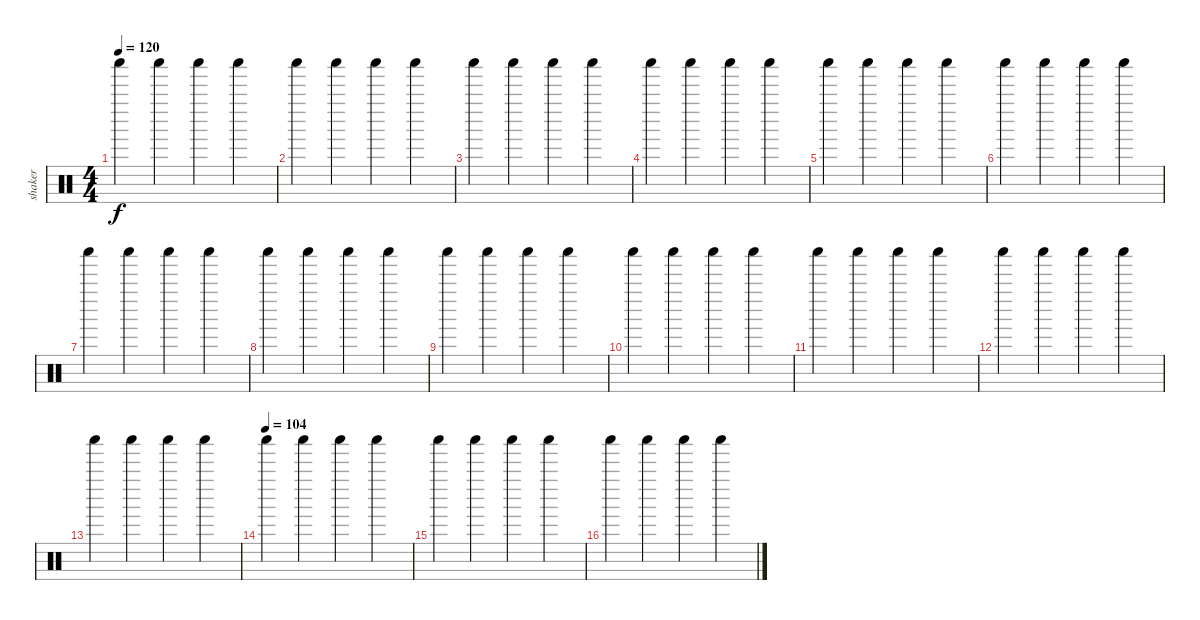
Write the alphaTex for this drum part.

\track ("shaker" "shaker") {instrument percussion}
\staff {score}
\articulation defaults
\ts (4 4)
\tempo 120
\clef neutral
\ks c "Shaker (hit)".4{dy f} "Shaker (hit)".4 "Shaker (hit)".4 "Shaker (hit)".4
|
"Shaker (hit)".4 "Shaker (hit)".4 "Shaker (hit)".4 "Shaker (hit)".4 |
"Shaker (hit)".4 "Shaker (hit)".4 "Shaker (hit)".4 "Shaker (hit)".4 |
"Shaker (hit)".4 "Shaker (hit)".4 "Shaker (hit)".4 "Shaker (hit)".4 |
"Shaker (hit)".4 "Shaker (hit)".4 "Shaker (hit)".4 "Shaker (hit)".4 |
"Shaker (hit)".4 "Shaker (hit)".4 "Shaker (hit)".4 "Shaker (hit)".4 |
"Shaker (hit)".4 "Shaker (hit)".4 "Shaker (hit)".4 "Shaker (hit)".4 |
"Shaker (hit)".4 "Shaker (hit)".4 "Shaker (hit)".4 "Shaker (hit)".4 |
"Shaker (hit)".4 "Shaker (hit)".4 "Shaker (hit)".4 "Shaker (hit)".4 |
"Shaker (hit)".4 "Shaker (hit)".4 "Shaker (hit)".4 "Shaker (hit)".4 |
"Shaker (hit)".4 "Shaker (hit)".4 "Shaker (hit)".4 "Shaker (hit)".4 |
"Shaker (hit)".4 "Shaker (hit)".4 "Shaker (hit)".4 "Shaker (hit)".4 |
"Shaker (hit)".4 "Shaker (hit)".4 "Shaker (hit)".4 "Shaker (hit)".4 |
\tempo (104)
"Shaker (hit)".4 "Shaker (hit)".4 "Shaker (hit)".4 "Shaker (hit)".4 |
"Shaker (hit)".4 "Shaker (hit)".4 "Shaker (hit)".4 "Shaker (hit)".4 |
"Shaker (hit)".4 "Shaker (hit)".4 "Shaker (hit)".4 "Shaker (hit)".4
